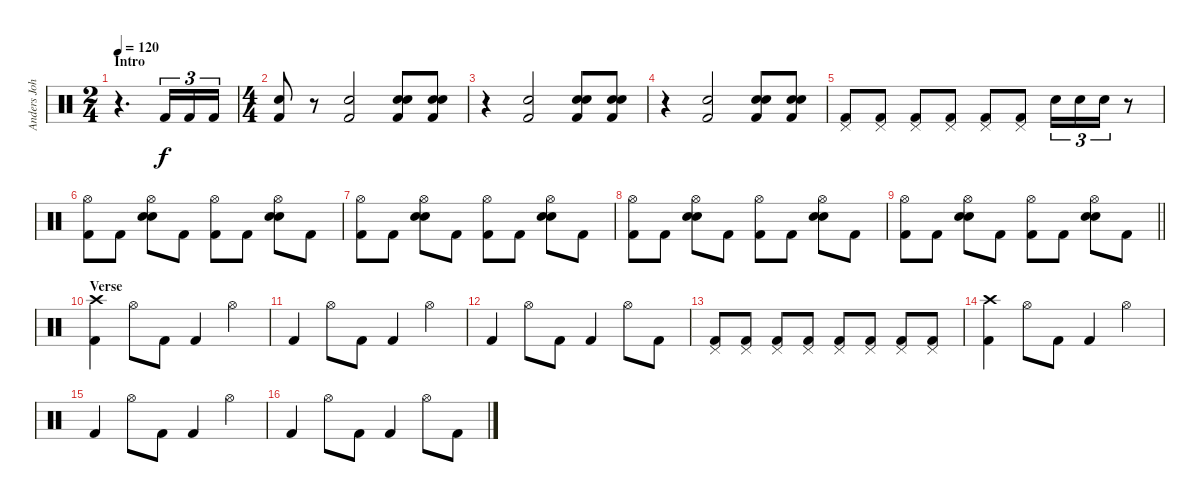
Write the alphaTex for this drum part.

\track ("Anders Johansson" "Anders Joh") {instrument percussion}
\staff {score}
\articulation defaults
\ts (2 4)
\section ("" "Intro")
\tempo 120
\clef neutral
\ks c
r.4{d dy f} "Kick (hit) 2".16{tu (3 2)} "Kick (hit) 2".16{tu (3 2)} "Kick (hit) 2".16{tu (3 2)} |
\ts (4 4)
("Electric Snare (hit)" "Kick (hit) 2").8 r.8 ("Electric Snare (hit)" "Kick (hit) 2").2 ("Electric Snare (hit)" "Snare (hit) 2" "Kick (hit) 2").8 ("Electric Snare (hit)" "Snare (hit) 2" "Kick (hit) 2").8 |
r.4 ("Electric Snare (hit)" "Kick (hit) 2").2 ("Electric Snare (hit)" "Snare (hit) 2" "Kick (hit) 2").8 ("Electric Snare (hit)" "Snare (hit) 2" "Kick (hit) 2").8 |
r.4 ("Electric Snare (hit)" "Kick (hit) 2").2 ("Electric Snare (hit)" "Snare (hit) 2" "Kick (hit) 2").8 ("Electric Snare (hit)" "Snare (hit) 2" "Kick (hit) 2").8 |
("Pedal Hi-Hat (hit)" "Kick (hit) 2").8 ("Pedal Hi-Hat (hit)" "Kick (hit) 2").8 ("Pedal Hi-Hat (hit)" "Kick (hit) 2").8 ("Pedal Hi-Hat (hit)" "Kick (hit) 2").8 ("Pedal Hi-Hat (hit)" "Kick (hit) 2").8 ("Pedal Hi-Hat (hit)" "Kick (hit) 2").8 "Snare (hit) 2".16{tu (3 2)} "Snare (hit) 2".16{tu (3 2)} "Snare (hit) 2".16{tu (3 2)} r.8 |
("Hi-Hat (open)" "Kick (hit) 2").8 "Kick (hit) 2".8 ("Hi-Hat (open)" "Electric Snare (hit)" "Snare (hit) 2").8 "Kick (hit) 2".8 ("Hi-Hat (open)" "Kick (hit) 2").8 "Kick (hit) 2".8 ("Hi-Hat (open)" "Electric Snare (hit)" "Snare (hit) 2").8 "Kick (hit) 2".8 |
("Hi-Hat (open)" "Kick (hit) 2").8 "Kick (hit) 2".8 ("Hi-Hat (open)" "Electric Snare (hit)" "Snare (hit) 2").8 "Kick (hit) 2".8 ("Hi-Hat (open)" "Kick (hit) 2").8 "Kick (hit) 2".8 ("Hi-Hat (open)" "Electric Snare (hit)" "Snare (hit) 2").8 "Kick (hit) 2".8 |
("Hi-Hat (open)" "Kick (hit) 2").8 "Kick (hit) 2".8 ("Hi-Hat (open)" "Electric Snare (hit)" "Snare (hit) 2").8 "Kick (hit) 2".8 ("Hi-Hat (open)" "Kick (hit) 2").8 "Kick (hit) 2".8 ("Hi-Hat (open)" "Electric Snare (hit)" "Snare (hit) 2").8 "Kick (hit) 2".8 |
\barLineRight lightlight
("Hi-Hat (open)" "Kick (hit) 2").8 "Kick (hit) 2".8 ("Hi-Hat (open)" "Electric Snare (hit)" "Snare (hit) 2").8 "Kick (hit) 2".8 ("Hi-Hat (open)" "Kick (hit) 2").8 "Kick (hit) 2".8 ("Hi-Hat (open)" "Electric Snare (hit)" "Snare (hit) 2").8 "Kick (hit) 2".8 |
\section ("" "Verse")
("Crash high (hit)" "Kick (hit) 2").4 "Hi-Hat (open)".8 "Kick (hit) 2".8 "Kick (hit) 2".4 "Hi-Hat (open)".4 |
"Kick (hit) 2".4 "Hi-Hat (open)".8 "Kick (hit) 2".8 "Kick (hit) 2".4 "Hi-Hat (open)".4 |
"Kick (hit) 2".4 "Hi-Hat (open)".8 "Kick (hit) 2".8 "Kick (hit) 2".4 "Hi-Hat (open)".8 "Kick (hit) 2".8 |
("Pedal Hi-Hat (hit)" "Kick (hit) 2").8 ("Pedal Hi-Hat (hit)" "Kick (hit) 2").8 ("Pedal Hi-Hat (hit)" "Kick (hit) 2").8 ("Pedal Hi-Hat (hit)" "Kick (hit) 2").8 ("Pedal Hi-Hat (hit)" "Kick (hit) 2").8 ("Pedal Hi-Hat (hit)" "Kick (hit) 2").8 ("Pedal Hi-Hat (hit)" "Kick (hit) 2").8 ("Pedal Hi-Hat (hit)" "Kick (hit) 2").8 |
("Crash high (hit)" "Kick (hit) 2").4 "Hi-Hat (open)".8 "Kick (hit) 2".8 "Kick (hit) 2".4 "Hi-Hat (open)".4 |
"Kick (hit) 2".4 "Hi-Hat (open)".8 "Kick (hit) 2".8 "Kick (hit) 2".4 "Hi-Hat (open)".4 |
"Kick (hit) 2".4 "Hi-Hat (open)".8 "Kick (hit) 2".8 "Kick (hit) 2".4 "Hi-Hat (open)".8 "Kick (hit) 2".8
